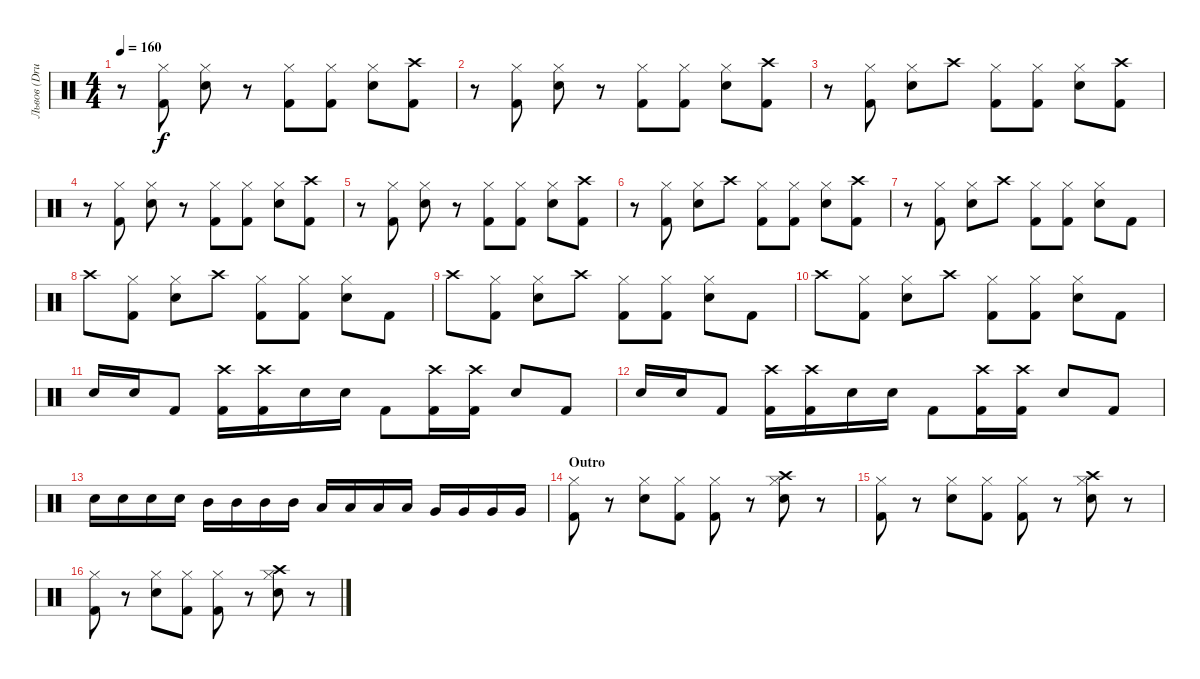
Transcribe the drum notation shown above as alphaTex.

\track ("Львов (Drums)" "Львов (Dru") {instrument percussion}
\staff {score}
\articulation defaults
\ts (4 4)
\tempo 160
\clef neutral
\ks c
r.8{dy f} ("Kick (hit) 2" "Hi-Hat (closed)").8 ("Electric Snare (hit)" "Hi-Hat (closed)").8 r.8 ("Kick (hit) 2" "Hi-Hat (closed)").8 ("Kick (hit) 2" "Hi-Hat (closed)").8 ("Electric Snare (hit)" "Hi-Hat (closed)").8 ("Kick (hit) 2" "Crash high (hit)").8 |
r.8 ("Kick (hit) 2" "Hi-Hat (closed)").8 ("Electric Snare (hit)" "Hi-Hat (closed)").8 r.8 ("Kick (hit) 2" "Hi-Hat (closed)").8 ("Kick (hit) 2" "Hi-Hat (closed)").8 ("Electric Snare (hit)" "Hi-Hat (closed)").8 ("Kick (hit) 2" "Crash high (hit)").8 |
r.8 ("Kick (hit) 2" "Hi-Hat (closed)").8 ("Electric Snare (hit)" "Hi-Hat (closed)").8 "Crash high (hit)".8 ("Kick (hit) 2" "Hi-Hat (closed)").8 ("Kick (hit) 2" "Hi-Hat (closed)").8 ("Electric Snare (hit)" "Hi-Hat (closed)").8 ("Kick (hit) 2" "Crash high (hit)").8 |
r.8 ("Kick (hit) 2" "Hi-Hat (closed)").8 ("Electric Snare (hit)" "Hi-Hat (closed)").8 r.8 ("Kick (hit) 2" "Hi-Hat (closed)").8 ("Kick (hit) 2" "Hi-Hat (closed)").8 ("Electric Snare (hit)" "Hi-Hat (closed)").8 ("Kick (hit) 2" "Crash high (hit)").8 |
r.8 ("Kick (hit) 2" "Hi-Hat (closed)").8 ("Electric Snare (hit)" "Hi-Hat (closed)").8 r.8 ("Kick (hit) 2" "Hi-Hat (closed)").8 ("Kick (hit) 2" "Hi-Hat (closed)").8 ("Electric Snare (hit)" "Hi-Hat (closed)").8 ("Kick (hit) 2" "Crash high (hit)").8 |
r.8 ("Kick (hit) 2" "Hi-Hat (closed)").8 ("Electric Snare (hit)" "Hi-Hat (closed)").8 "Crash high (hit)".8 ("Kick (hit) 2" "Hi-Hat (closed)").8 ("Kick (hit) 2" "Hi-Hat (closed)").8 ("Electric Snare (hit)" "Hi-Hat (closed)").8 ("Kick (hit) 2" "Crash high (hit)").8 |
r.8 ("Kick (hit) 2" "Hi-Hat (closed)").8 ("Electric Snare (hit)" "Hi-Hat (closed)").8 "Crash high (hit)".8 ("Kick (hit) 2" "Hi-Hat (closed)").8 ("Kick (hit) 2" "Hi-Hat (closed)").8 ("Electric Snare (hit)" "Hi-Hat (closed)").8 "Kick (hit) 2".8 |
"Crash high (hit)".8 ("Kick (hit) 2" "Hi-Hat (closed)").8 ("Electric Snare (hit)" "Hi-Hat (closed)").8 "Crash high (hit)".8 ("Kick (hit) 2" "Hi-Hat (closed)").8 ("Kick (hit) 2" "Hi-Hat (closed)").8 ("Electric Snare (hit)" "Hi-Hat (closed)").8 "Kick (hit) 2".8 |
"Crash high (hit)".8 ("Kick (hit) 2" "Hi-Hat (closed)").8 ("Electric Snare (hit)" "Hi-Hat (closed)").8 "Crash high (hit)".8 ("Kick (hit) 2" "Hi-Hat (closed)").8 ("Kick (hit) 2" "Hi-Hat (closed)").8 ("Electric Snare (hit)" "Hi-Hat (closed)").8 "Kick (hit) 2".8 |
"Crash high (hit)".8 ("Kick (hit) 2" "Hi-Hat (closed)").8 ("Electric Snare (hit)" "Hi-Hat (closed)").8 "Crash high (hit)".8 ("Kick (hit) 2" "Hi-Hat (closed)").8 ("Kick (hit) 2" "Hi-Hat (closed)").8 ("Electric Snare (hit)" "Hi-Hat (closed)").8 "Kick (hit) 2".8 |
"Electric Snare (hit)".16 "Electric Snare (hit)".16 "Kick (hit) 2".8 ("Kick (hit) 2" "Crash high (hit)").16 ("Kick (hit) 2" "Crash high (hit)").16 "Electric Snare (hit)".16 "Electric Snare (hit)".16 "Kick (hit) 2".8 ("Kick (hit) 2" "Crash high (hit)").16 ("Kick (hit) 2" "Crash high (hit)").16 "Electric Snare (hit)".8 "Kick (hit) 2".8 |
"Electric Snare (hit)".16 "Electric Snare (hit)".16 "Kick (hit) 2".8 ("Kick (hit) 2" "Crash high (hit)").16 ("Kick (hit) 2" "Crash high (hit)").16 "Electric Snare (hit)".16 "Electric Snare (hit)".16 "Kick (hit) 2".8 ("Kick (hit) 2" "Crash high (hit)").16 ("Kick (hit) 2" "Crash high (hit)").16 "Electric Snare (hit)".8 "Kick (hit) 2".8 |
"Electric Snare (hit)".16 "Electric Snare (hit)".16 "Electric Snare (hit)".16 "Electric Snare (hit)".16 "Mid Tom (hit)".16 "Mid Tom (hit)".16 "Mid Tom (hit)".16 "Mid Tom (hit)".16 "Low Tom (hit)".16 "Low Tom (hit)".16 "Low Tom (hit)".16 "Low Tom (hit)".16 "Very Low Tom (hit)".16 "Very Low Tom (hit)".16 "Very Low Tom (hit)".16 "Very Low Tom (hit)".16 |
\section ("" "Outro")
("Kick (hit) 2" "Hi-Hat (closed)").8 r.8 ("Electric Snare (hit)" "Hi-Hat (closed)").8 ("Kick (hit) 2" "Hi-Hat (closed)").8 ("Kick (hit) 2" "Hi-Hat (closed)").8 r.8 ("Electric Snare (hit)" "Crash high (hit)" "Hi-Hat (closed)").8 r.8 |
("Kick (hit) 2" "Hi-Hat (closed)").8 r.8 ("Electric Snare (hit)" "Hi-Hat (closed)").8 ("Kick (hit) 2" "Hi-Hat (closed)").8 ("Kick (hit) 2" "Hi-Hat (closed)").8 r.8 ("Electric Snare (hit)" "Crash high (hit)" "Hi-Hat (closed)").8 r.8 |
("Kick (hit) 2" "Hi-Hat (closed)").8 r.8 ("Electric Snare (hit)" "Hi-Hat (closed)").8 ("Kick (hit) 2" "Hi-Hat (closed)").8 ("Kick (hit) 2" "Hi-Hat (closed)").8 r.8 ("Electric Snare (hit)" "Crash high (hit)" "Hi-Hat (closed)").8 r.8
